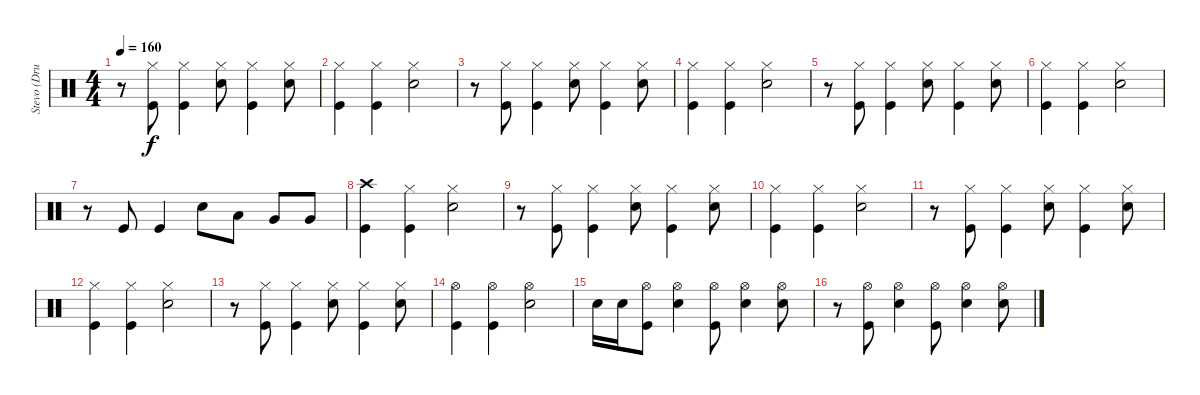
\track ("Stevo (Drums)" "Stevo (Dru") {instrument percussion}
\staff {score}
\articulation defaults
\ts (4 4)
\tempo 160
\clef neutral
\ks c
r.8{dy f} ("Hi-Hat (closed)" "Kick (hit)").8 ("Hi-Hat (closed)" "Kick (hit)").4 ("Hi-Hat (closed)" "Electric Snare (hit)").8 ("Hi-Hat (closed)" "Kick (hit)").4 ("Hi-Hat (closed)" "Electric Snare (hit)").8 |
("Hi-Hat (closed)" "Kick (hit)").4 ("Hi-Hat (closed)" "Kick (hit)").4 ("Hi-Hat (closed)" "Electric Snare (hit)").2 |
r.8 ("Hi-Hat (closed)" "Kick (hit)").8 ("Hi-Hat (closed)" "Kick (hit)").4 ("Hi-Hat (closed)" "Electric Snare (hit)").8 ("Hi-Hat (closed)" "Kick (hit)").4 ("Hi-Hat (closed)" "Electric Snare (hit)").8 |
("Hi-Hat (closed)" "Kick (hit)").4 ("Hi-Hat (closed)" "Kick (hit)").4 ("Hi-Hat (closed)" "Electric Snare (hit)").2 |
r.8 ("Hi-Hat (closed)" "Kick (hit)").8 ("Hi-Hat (closed)" "Kick (hit)").4 ("Hi-Hat (closed)" "Electric Snare (hit)").8 ("Hi-Hat (closed)" "Kick (hit)").4 ("Hi-Hat (closed)" "Electric Snare (hit)").8 |
("Hi-Hat (closed)" "Kick (hit)").4 ("Hi-Hat (closed)" "Kick (hit)").4 ("Hi-Hat (closed)" "Electric Snare (hit)").2 |
r.8 "Kick (hit)".8 "Kick (hit)".4 "Electric Snare (hit)".8 "Low Tom (hit)".8 "Very Low Tom (hit)".8 "Very Low Tom (hit)".8 |
("Crash high (hit)" "Kick (hit)").4 ("Hi-Hat (closed)" "Kick (hit)").4 ("Hi-Hat (closed)" "Electric Snare (hit)").2 |
r.8 ("Hi-Hat (closed)" "Kick (hit)").8 ("Hi-Hat (closed)" "Kick (hit)").4 ("Hi-Hat (closed)" "Electric Snare (hit)").8 ("Hi-Hat (closed)" "Kick (hit)").4 ("Hi-Hat (closed)" "Electric Snare (hit)").8 |
("Hi-Hat (closed)" "Kick (hit)").4 ("Hi-Hat (closed)" "Kick (hit)").4 ("Hi-Hat (closed)" "Electric Snare (hit)").2 |
r.8 ("Hi-Hat (closed)" "Kick (hit)").8 ("Hi-Hat (closed)" "Kick (hit)").4 ("Hi-Hat (closed)" "Electric Snare (hit)").8 ("Hi-Hat (closed)" "Kick (hit)").4 ("Hi-Hat (closed)" "Electric Snare (hit)").8 |
("Hi-Hat (closed)" "Kick (hit)").4 ("Hi-Hat (closed)" "Kick (hit)").4 ("Hi-Hat (closed)" "Electric Snare (hit)").2 |
r.8 ("Hi-Hat (closed)" "Kick (hit)").8 ("Hi-Hat (closed)" "Kick (hit)").4 ("Hi-Hat (closed)" "Electric Snare (hit)").8 ("Hi-Hat (closed)" "Kick (hit)").4 ("Hi-Hat (closed)" "Electric Snare (hit)").8 |
("Hi-Hat (open)" "Kick (hit)").4 ("Hi-Hat (open)" "Kick (hit)").4 ("Hi-Hat (open)" "Electric Snare (hit)").2 |
"Electric Snare (hit)".16 "Electric Snare (hit)".16 ("Hi-Hat (open)" "Kick (hit)").8 ("Hi-Hat (open)" "Electric Snare (hit)").4 ("Hi-Hat (open)" "Kick (hit)").8 ("Hi-Hat (open)" "Electric Snare (hit)").4 ("Hi-Hat (open)" "Electric Snare (hit)").8 |
r.8 ("Hi-Hat (open)" "Kick (hit)").8 ("Hi-Hat (open)" "Electric Snare (hit)").4 ("Hi-Hat (open)" "Kick (hit)").8 ("Hi-Hat (open)" "Electric Snare (hit)").4 ("Hi-Hat (open)" "Electric Snare (hit)").8
